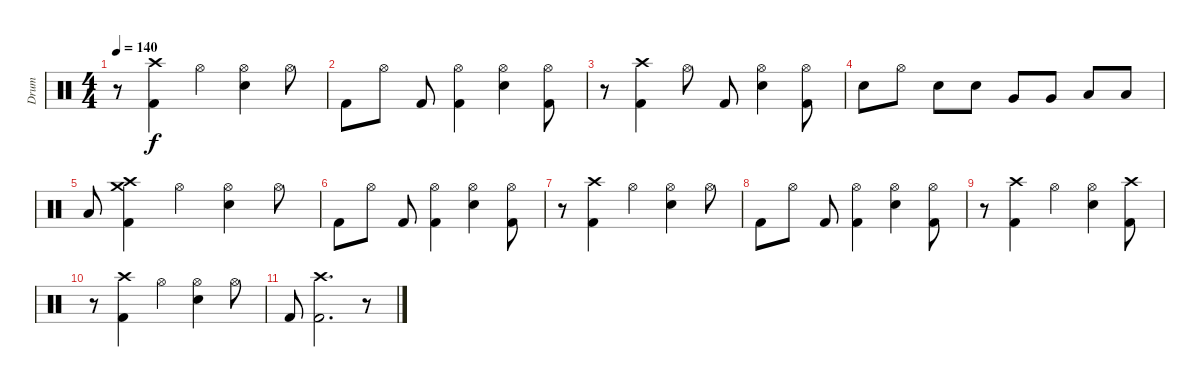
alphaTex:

\track ("Drum" "Drum") {instrument percussion}
\staff {score}
\articulation defaults
\ts (4 4)
\tempo 140
\clef neutral
\ks c
r.8{dy f} ("Crash high (hit)" "Kick (hit) 2").4 "Hi-Hat (open)".4 ("Electric Snare (hit)" "Hi-Hat (open)").4 "Hi-Hat (open)".8 |
"Kick (hit) 2".8 "Hi-Hat (open)".8 "Kick (hit) 2".8 ("Hi-Hat (open)" "Kick (hit) 2").4 ("Electric Snare (hit)" "Hi-Hat (open)").4 ("Hi-Hat (open)" "Kick (hit) 2").8 |
r.8 ("Kick (hit) 2" "Crash high (hit)").4 "Hi-Hat (open)".8 "Kick (hit) 2".8 ("Hi-Hat (open)" "Electric Snare (hit)").4 ("Hi-Hat (open)" "Kick (hit) 2").8 |
"Electric Snare (hit)".8 "Hi-Hat (open)".8 "Electric Snare (hit)".8 "Electric Snare (hit)".8 "Very Low Tom (hit)".8 "Very Low Tom (hit)".8 "Low Floor Tom (hit)".8 "Low Floor Tom (hit)".8 |
"Low Floor Tom (hit)".8 ("Kick (hit) 2" "Crash medium (hit)" "Crash high (hit)").4 "Hi-Hat (open)".4 ("Hi-Hat (open)" "Electric Snare (hit)").4 "Hi-Hat (open)".8 |
"Kick (hit) 2".8 "Hi-Hat (open)".8 "Kick (hit) 2".8 ("Hi-Hat (open)" "Kick (hit) 2").4 ("Electric Snare (hit)" "Hi-Hat (open)").4 ("Hi-Hat (open)" "Kick (hit) 2").8 |
r.8 ("Crash high (hit)" "Kick (hit) 2").4 "Hi-Hat (open)".4 ("Electric Snare (hit)" "Hi-Hat (open)").4 "Hi-Hat (open)".8 |
"Kick (hit) 2".8 "Hi-Hat (open)".8 "Kick (hit) 2".8 ("Hi-Hat (open)" "Kick (hit) 2").4 ("Electric Snare (hit)" "Hi-Hat (open)").4 ("Hi-Hat (open)" "Kick (hit) 2").8 |
r.8 ("Crash high (hit)" "Kick (hit) 2").4 "Hi-Hat (open)".4 ("Electric Snare (hit)" "Hi-Hat (open)").4 ("Crash high (hit)" "Kick (hit) 2").8 |
r.8 ("Crash high (hit)" "Kick (hit) 2").4 "Hi-Hat (open)".4 ("Hi-Hat (open)" "Electric Snare (hit)").4 "Hi-Hat (open)".8 |
"Kick (hit) 2".8 ("Crash high (hit)" "Kick (hit) 2").2{d} r.8
